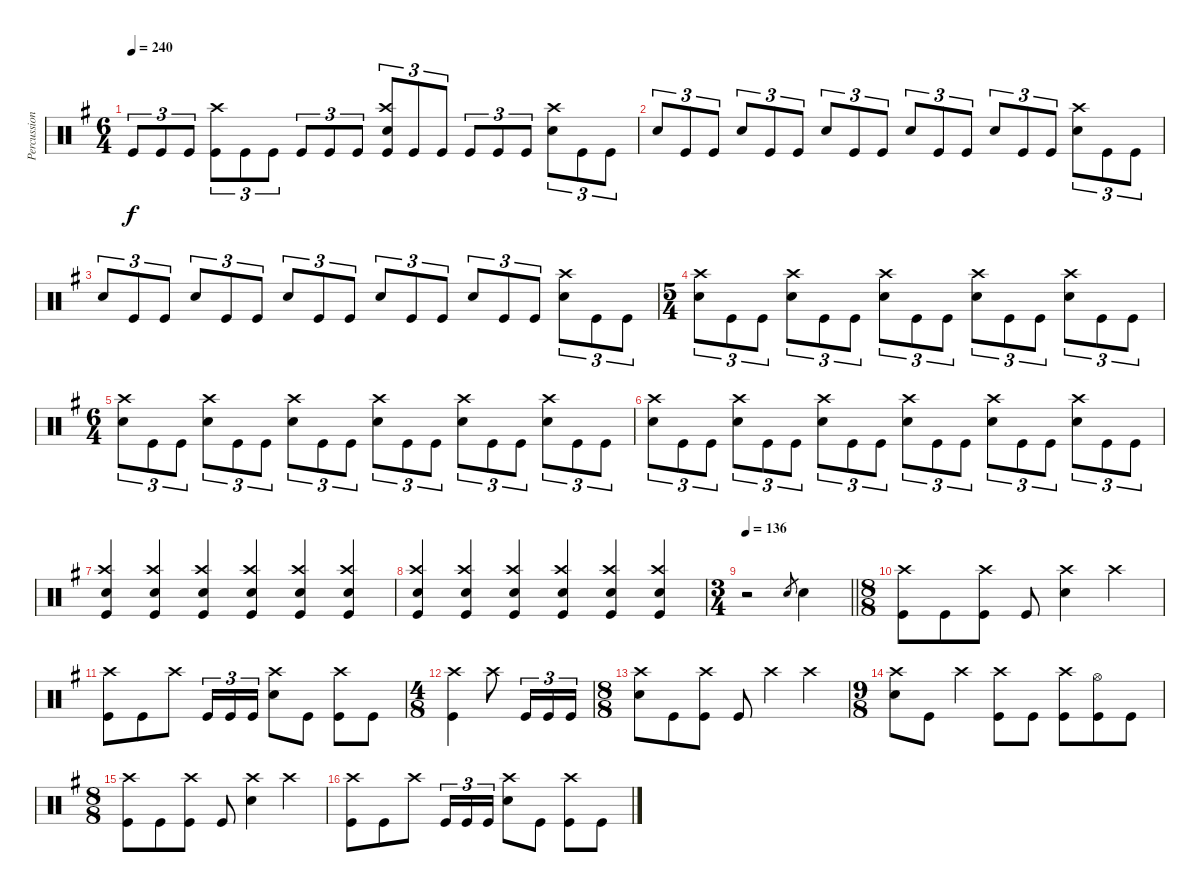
\track ("Percussion" "Percussion") {instrument percussion}
\staff {score}
\articulation defaults
\ts (6 4)
\tempo 240
\clef neutral
\ks g "Kick (hit)".8{tu (3 2) dy f} "Kick (hit)".8{tu (3 2)} "Kick (hit)".8{tu (3 2)}
("Crash high (hit)" "Kick (hit)").8{tu (3 2)} "Kick (hit)".8{tu (3 2)} "Kick (hit)".8{tu (3 2)} "Kick (hit)".8{tu (3 2)} "Kick (hit)".8{tu (3 2)} "Kick (hit)".8{tu (3 2)} ("Crash high (hit)" "Electric Snare (hit)" "Kick (hit)").8{tu (3 2)} "Kick (hit)".8{tu (3 2)} "Kick (hit)".8{tu (3 2)} "Kick (hit)".8{tu (3 2)} "Kick (hit)".8{tu (3 2)} "Kick (hit)".8{tu (3 2)} ("Crash high (hit)" "Electric Snare (hit)").8{tu (3 2)} "Kick (hit)".8{tu (3 2)} "Kick (hit)".8{tu (3 2)} |
"Electric Snare (hit)".8{tu (3 2)} "Kick (hit)".8{tu (3 2)} "Kick (hit)".8{tu (3 2)} "Electric Snare (hit)".8{tu (3 2)} "Kick (hit)".8{tu (3 2)} "Kick (hit)".8{tu (3 2)} "Electric Snare (hit)".8{tu (3 2)} "Kick (hit)".8{tu (3 2)} "Kick (hit)".8{tu (3 2)} "Electric Snare (hit)".8{tu (3 2)} "Kick (hit)".8{tu (3 2)} "Kick (hit)".8{tu (3 2)} "Electric Snare (hit)".8{tu (3 2)} "Kick (hit)".8{tu (3 2)} "Kick (hit)".8{tu (3 2)} ("Crash high (hit)" "Electric Snare (hit)").8{tu (3 2)} "Kick (hit)".8{tu (3 2)} "Kick (hit)".8{tu (3 2)} |
"Electric Snare (hit)".8{tu (3 2)} "Kick (hit)".8{tu (3 2)} "Kick (hit)".8{tu (3 2)} "Electric Snare (hit)".8{tu (3 2)} "Kick (hit)".8{tu (3 2)} "Kick (hit)".8{tu (3 2)} "Electric Snare (hit)".8{tu (3 2)} "Kick (hit)".8{tu (3 2)} "Kick (hit)".8{tu (3 2)} "Electric Snare (hit)".8{tu (3 2)} "Kick (hit)".8{tu (3 2)} "Kick (hit)".8{tu (3 2)} "Electric Snare (hit)".8{tu (3 2)} "Kick (hit)".8{tu (3 2)} "Kick (hit)".8{tu (3 2)} ("Crash high (hit)" "Electric Snare (hit)").8{tu (3 2)} "Kick (hit)".8{tu (3 2)} "Kick (hit)".8{tu (3 2)} |
\ts (5 4)
("Crash high (hit)" "Electric Snare (hit)").8{tu (3 2)} "Kick (hit)".8{tu (3 2)} "Kick (hit)".8{tu (3 2)} ("Crash high (hit)" "Electric Snare (hit)").8{tu (3 2)} "Kick (hit)".8{tu (3 2)} "Kick (hit)".8{tu (3 2)} ("Crash high (hit)" "Electric Snare (hit)").8{tu (3 2)} "Kick (hit)".8{tu (3 2)} "Kick (hit)".8{tu (3 2)} ("Crash high (hit)" "Electric Snare (hit)").8{tu (3 2)} "Kick (hit)".8{tu (3 2)} "Kick (hit)".8{tu (3 2)} ("Crash high (hit)" "Electric Snare (hit)").8{tu (3 2)} "Kick (hit)".8{tu (3 2)} "Kick (hit)".8{tu (3 2)} |
\ts (6 4)
("Crash high (hit)" "Electric Snare (hit)").8{tu (3 2)} "Kick (hit)".8{tu (3 2)} "Kick (hit)".8{tu (3 2)} ("Crash high (hit)" "Electric Snare (hit)").8{tu (3 2)} "Kick (hit)".8{tu (3 2)} "Kick (hit)".8{tu (3 2)} ("Crash high (hit)" "Electric Snare (hit)").8{tu (3 2)} "Kick (hit)".8{tu (3 2)} "Kick (hit)".8{tu (3 2)} ("Crash high (hit)" "Electric Snare (hit)").8{tu (3 2)} "Kick (hit)".8{tu (3 2)} "Kick (hit)".8{tu (3 2)} ("Crash high (hit)" "Electric Snare (hit)").8{tu (3 2)} "Kick (hit)".8{tu (3 2)} "Kick (hit)".8{tu (3 2)} ("Crash high (hit)" "Electric Snare (hit)").8{tu (3 2)} "Kick (hit)".8{tu (3 2)} "Kick (hit)".8{tu (3 2)} |
("Crash high (hit)" "Electric Snare (hit)").8{tu (3 2)} "Kick (hit)".8{tu (3 2)} "Kick (hit)".8{tu (3 2)} ("Crash high (hit)" "Electric Snare (hit)").8{tu (3 2)} "Kick (hit)".8{tu (3 2)} "Kick (hit)".8{tu (3 2)} ("Crash high (hit)" "Electric Snare (hit)").8{tu (3 2)} "Kick (hit)".8{tu (3 2)} "Kick (hit)".8{tu (3 2)} ("Crash high (hit)" "Electric Snare (hit)").8{tu (3 2)} "Kick (hit)".8{tu (3 2)} "Kick (hit)".8{tu (3 2)} ("Crash high (hit)" "Electric Snare (hit)").8{tu (3 2)} "Kick (hit)".8{tu (3 2)} "Kick (hit)".8{tu (3 2)} ("Crash high (hit)" "Electric Snare (hit)").8{tu (3 2)} "Kick (hit)".8{tu (3 2)} "Kick (hit)".8{tu (3 2)} |
("Crash high (hit)" "Electric Snare (hit)" "Kick (hit)").4 ("Crash high (hit)" "Electric Snare (hit)" "Kick (hit)").4 ("Crash high (hit)" "Electric Snare (hit)" "Kick (hit)").4 ("Crash high (hit)" "Electric Snare (hit)" "Kick (hit)").4 ("Crash high (hit)" "Electric Snare (hit)" "Kick (hit)").4 ("Crash high (hit)" "Electric Snare (hit)" "Kick (hit)").4 |
("Crash high (hit)" "Electric Snare (hit)" "Kick (hit)").4 ("Crash high (hit)" "Electric Snare (hit)" "Kick (hit)").4 ("Crash high (hit)" "Electric Snare (hit)" "Kick (hit)").4 ("Crash high (hit)" "Electric Snare (hit)" "Kick (hit)").4 ("Crash high (hit)" "Electric Snare (hit)" "Kick (hit)").4 ("Crash high (hit)" "Electric Snare (hit)" "Kick (hit)").4 |
\ts (3 4)
\tempo 136
\barLineRight lightlight
r.2 "Electric Snare (hit)".8{gr} "Electric Snare (hit)".4 |
\ts (8 8)
("Crash high (hit)" "Kick (hit)").8 "Kick (hit)".8 ("Crash high (hit)" "Kick (hit)").8 "Kick (hit)".8 ("Crash high (hit)" "Electric Snare (hit)").4 "Crash high (hit)".4 |
("Crash high (hit)" "Kick (hit)").8 "Kick (hit)".8 "Crash high (hit)".8 "Kick (hit)".16{tu (3 2)} "Kick (hit)".16{tu (3 2)} "Kick (hit)".16{tu (3 2)} ("Crash high (hit)" "Electric Snare (hit)").8 "Kick (hit)".8 ("Crash high (hit)" "Kick (hit)").8 "Kick (hit)".8 |
\ts (4 8)
("Crash high (hit)" "Kick (hit)").4 "Crash high (hit)".8 "Kick (hit)".16{tu (3 2)} "Kick (hit)".16{tu (3 2)} "Kick (hit)".16{tu (3 2)} |
\ts (8 8)
("Crash high (hit)" "Electric Snare (hit)").8 "Kick (hit)".8 ("Crash high (hit)" "Kick (hit)").8 "Kick (hit)".8 "Crash high (hit)".4 "Crash high (hit)".4 |
\ts (9 8)
("Crash high (hit)" "Electric Snare (hit)").8 "Kick (hit)".8 "Crash high (hit)".4 ("Crash high (hit)" "Kick (hit)").8 "Kick (hit)".8 ("Crash high (hit)" "Kick (hit)").8 ("Hi-Hat (open)" "Kick (hit)").8 "Kick (hit)".8 |
\ts (8 8)
("Crash high (hit)" "Kick (hit)").8 "Kick (hit)".8 ("Crash high (hit)" "Kick (hit)").8 "Kick (hit)".8 ("Crash high (hit)" "Electric Snare (hit)").4 "Crash high (hit)".4 |
("Crash high (hit)" "Kick (hit)").8 "Kick (hit)".8 "Crash high (hit)".8 "Kick (hit)".16{tu (3 2)} "Kick (hit)".16{tu (3 2)} "Kick (hit)".16{tu (3 2)} ("Crash high (hit)" "Electric Snare (hit)").8 "Kick (hit)".8 ("Crash high (hit)" "Kick (hit)").8 "Kick (hit)".8
